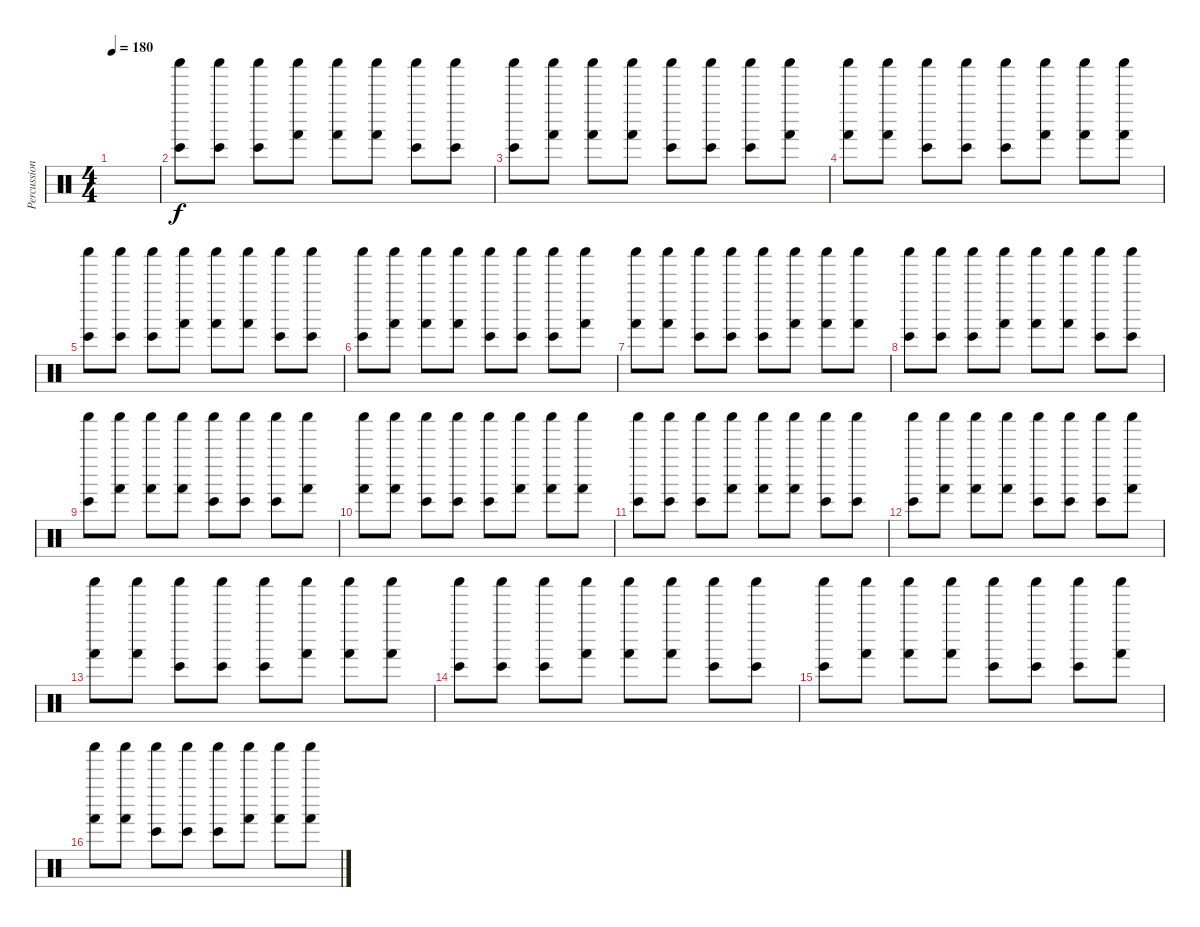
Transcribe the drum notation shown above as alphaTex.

\track ("Percussion" "Percussion") {instrument percussion}
\staff {score}
\articulation defaults
\ts (4 4)
\tempo 180
\clef neutral
\ks c
|
("Shaker (hit)" "Bongo High (hit)").8 ("Shaker (hit)" "Bongo High (hit)").8 ("Shaker (hit)" "Bongo High (hit)").8 ("Shaker (hit)" "Hand (hit)").8 ("Shaker (hit)" "Hand (hit)").8 ("Shaker (hit)" "Hand (hit)").8 ("Shaker (hit)" "Bongo High (hit)").8 ("Shaker (hit)" "Bongo High (hit)").8 |
("Shaker (hit)" "Bongo High (hit)").8 ("Shaker (hit)" "Hand (hit)").8 ("Shaker (hit)" "Hand (hit)").8 ("Shaker (hit)" "Hand (hit)").8 ("Shaker (hit)" "Bongo High (hit)").8 ("Shaker (hit)" "Bongo High (hit)").8 ("Shaker (hit)" "Bongo High (hit)").8 ("Shaker (hit)" "Hand (hit)").8 |
("Shaker (hit)" "Hand (hit)").8 ("Shaker (hit)" "Hand (hit)").8 ("Shaker (hit)" "Bongo High (hit)").8 ("Shaker (hit)" "Bongo High (hit)").8 ("Shaker (hit)" "Bongo High (hit)").8 ("Shaker (hit)" "Hand (hit)").8 ("Shaker (hit)" "Hand (hit)").8 ("Shaker (hit)" "Hand (hit)").8 |
("Shaker (hit)" "Bongo High (hit)").8 ("Shaker (hit)" "Bongo High (hit)").8 ("Shaker (hit)" "Bongo High (hit)").8 ("Shaker (hit)" "Hand (hit)").8 ("Shaker (hit)" "Hand (hit)").8 ("Shaker (hit)" "Hand (hit)").8 ("Shaker (hit)" "Bongo High (hit)").8 ("Shaker (hit)" "Bongo High (hit)").8 |
("Shaker (hit)" "Bongo High (hit)").8 ("Shaker (hit)" "Hand (hit)").8 ("Shaker (hit)" "Hand (hit)").8 ("Shaker (hit)" "Hand (hit)").8 ("Shaker (hit)" "Bongo High (hit)").8 ("Shaker (hit)" "Bongo High (hit)").8 ("Shaker (hit)" "Bongo High (hit)").8 ("Shaker (hit)" "Hand (hit)").8 |
("Shaker (hit)" "Hand (hit)").8 ("Shaker (hit)" "Hand (hit)").8 ("Shaker (hit)" "Bongo High (hit)").8 ("Shaker (hit)" "Bongo High (hit)").8 ("Shaker (hit)" "Bongo High (hit)").8 ("Shaker (hit)" "Hand (hit)").8 ("Shaker (hit)" "Hand (hit)").8 ("Shaker (hit)" "Hand (hit)").8 |
("Shaker (hit)" "Bongo High (hit)").8 ("Shaker (hit)" "Bongo High (hit)").8 ("Shaker (hit)" "Bongo High (hit)").8 ("Shaker (hit)" "Hand (hit)").8 ("Shaker (hit)" "Hand (hit)").8 ("Shaker (hit)" "Hand (hit)").8 ("Shaker (hit)" "Bongo High (hit)").8 ("Shaker (hit)" "Bongo High (hit)").8 |
("Shaker (hit)" "Bongo High (hit)").8 ("Shaker (hit)" "Hand (hit)").8 ("Shaker (hit)" "Hand (hit)").8 ("Shaker (hit)" "Hand (hit)").8 ("Shaker (hit)" "Bongo High (hit)").8 ("Shaker (hit)" "Bongo High (hit)").8 ("Shaker (hit)" "Bongo High (hit)").8 ("Shaker (hit)" "Hand (hit)").8 |
("Shaker (hit)" "Hand (hit)").8 ("Shaker (hit)" "Hand (hit)").8 ("Shaker (hit)" "Bongo High (hit)").8 ("Shaker (hit)" "Bongo High (hit)").8 ("Shaker (hit)" "Bongo High (hit)").8 ("Shaker (hit)" "Hand (hit)").8 ("Shaker (hit)" "Hand (hit)").8 ("Shaker (hit)" "Hand (hit)").8 |
("Shaker (hit)" "Bongo High (hit)").8 ("Shaker (hit)" "Bongo High (hit)").8 ("Shaker (hit)" "Bongo High (hit)").8 ("Shaker (hit)" "Hand (hit)").8 ("Shaker (hit)" "Hand (hit)").8 ("Shaker (hit)" "Hand (hit)").8 ("Shaker (hit)" "Bongo High (hit)").8 ("Shaker (hit)" "Bongo High (hit)").8 |
("Shaker (hit)" "Bongo High (hit)").8 ("Shaker (hit)" "Hand (hit)").8 ("Shaker (hit)" "Hand (hit)").8 ("Shaker (hit)" "Hand (hit)").8 ("Shaker (hit)" "Bongo High (hit)").8 ("Shaker (hit)" "Bongo High (hit)").8 ("Shaker (hit)" "Bongo High (hit)").8 ("Shaker (hit)" "Hand (hit)").8 |
("Shaker (hit)" "Hand (hit)").8 ("Shaker (hit)" "Hand (hit)").8 ("Shaker (hit)" "Bongo High (hit)").8 ("Shaker (hit)" "Bongo High (hit)").8 ("Shaker (hit)" "Bongo High (hit)").8 ("Shaker (hit)" "Hand (hit)").8 ("Shaker (hit)" "Hand (hit)").8 ("Shaker (hit)" "Hand (hit)").8 |
("Shaker (hit)" "Bongo High (hit)").8 ("Shaker (hit)" "Bongo High (hit)").8 ("Shaker (hit)" "Bongo High (hit)").8 ("Shaker (hit)" "Hand (hit)").8 ("Shaker (hit)" "Hand (hit)").8 ("Shaker (hit)" "Hand (hit)").8 ("Shaker (hit)" "Bongo High (hit)").8 ("Shaker (hit)" "Bongo High (hit)").8 |
("Shaker (hit)" "Bongo High (hit)").8 ("Shaker (hit)" "Hand (hit)").8 ("Shaker (hit)" "Hand (hit)").8 ("Shaker (hit)" "Hand (hit)").8 ("Shaker (hit)" "Bongo High (hit)").8 ("Shaker (hit)" "Bongo High (hit)").8 ("Shaker (hit)" "Bongo High (hit)").8 ("Shaker (hit)" "Hand (hit)").8 |
("Shaker (hit)" "Hand (hit)").8 ("Shaker (hit)" "Hand (hit)").8 ("Shaker (hit)" "Bongo High (hit)").8 ("Shaker (hit)" "Bongo High (hit)").8 ("Shaker (hit)" "Bongo High (hit)").8 ("Shaker (hit)" "Hand (hit)").8 ("Shaker (hit)" "Hand (hit)").8 ("Shaker (hit)" "Hand (hit)").8
